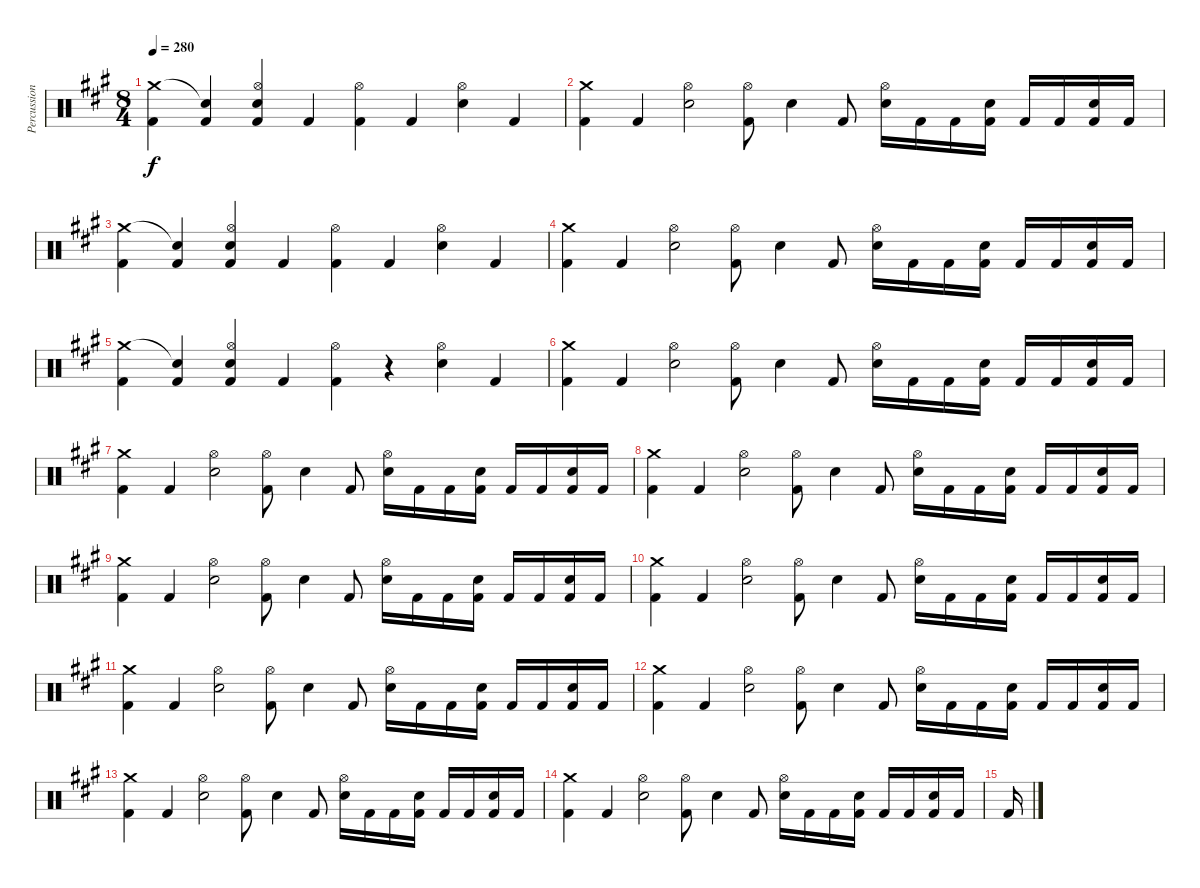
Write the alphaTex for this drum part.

\track ("Percussion" "Percussion") {instrument percussion}
\staff {score}
\articulation defaults
\ts (8 4)
\tempo 280
\clef neutral
\ks a
("Crash medium (hit)" "Kick (hit) 2").4{dy f} ("Snare (hit)"{t} "Kick (hit) 2").4 ("Hi-Hat (open)" "Electric Snare (hit)" "Kick (hit) 2").4 "Kick (hit) 2".4 ("Hi-Hat (open)" "Kick (hit) 2").4 "Kick (hit) 2".4 ("Hi-Hat (open)" "Electric Snare (hit)").4 "Kick (hit) 2".4 |
("Crash medium (hit)" "Kick (hit) 2").4 "Kick (hit) 2".4 ("Hi-Hat (open)" "Electric Snare (hit)").2 ("Hi-Hat (open)" "Kick (hit) 2").8 "Electric Snare (hit)".4 "Kick (hit) 2".8 ("Hi-Hat (open)" "Electric Snare (hit)").16 "Kick (hit) 2".16 "Kick (hit) 2".16 ("Electric Snare (hit)" "Kick (hit) 2").16 "Kick (hit) 2".16 "Kick (hit) 2".16 ("Electric Snare (hit)" "Kick (hit) 2").16 "Kick (hit) 2".16 |
("Crash medium (hit)" "Kick (hit) 2").4 ("Snare (hit)"{t} "Kick (hit) 2").4 ("Hi-Hat (open)" "Electric Snare (hit)" "Kick (hit) 2").4 "Kick (hit) 2".4 ("Hi-Hat (open)" "Kick (hit) 2").4 "Kick (hit) 2".4 ("Hi-Hat (open)" "Electric Snare (hit)").4 "Kick (hit) 2".4 |
("Crash medium (hit)" "Kick (hit) 2").4 "Kick (hit) 2".4 ("Hi-Hat (open)" "Electric Snare (hit)").2 ("Hi-Hat (open)" "Kick (hit) 2").8 "Electric Snare (hit)".4 "Kick (hit) 2".8 ("Hi-Hat (open)" "Electric Snare (hit)").16 "Kick (hit) 2".16 "Kick (hit) 2".16 ("Electric Snare (hit)" "Kick (hit) 2").16 "Kick (hit) 2".16 "Kick (hit) 2".16 ("Electric Snare (hit)" "Kick (hit) 2").16 "Kick (hit) 2".16 |
("Crash medium (hit)" "Kick (hit) 2").4 ("Snare (hit)"{t} "Kick (hit) 2").4 ("Hi-Hat (open)" "Electric Snare (hit)" "Kick (hit) 2").4 "Kick (hit) 2".4 ("Hi-Hat (open)" "Kick (hit) 2").4 r.4 ("Hi-Hat (open)" "Electric Snare (hit)").4 "Kick (hit) 2".4 |
("Crash medium (hit)" "Kick (hit) 2").4 "Kick (hit) 2".4 ("Hi-Hat (open)" "Electric Snare (hit)").2 ("Hi-Hat (open)" "Kick (hit) 2").8 "Electric Snare (hit)".4 "Kick (hit) 2".8 ("Hi-Hat (open)" "Electric Snare (hit)").16 "Kick (hit) 2".16 "Kick (hit) 2".16 ("Electric Snare (hit)" "Kick (hit) 2").16 "Kick (hit) 2".16 "Kick (hit) 2".16 ("Electric Snare (hit)" "Kick (hit) 2").16 "Kick (hit) 2".16 |
("Crash medium (hit)" "Kick (hit) 2").4 "Kick (hit) 2".4 ("Hi-Hat (open)" "Electric Snare (hit)").2 ("Hi-Hat (open)" "Kick (hit) 2").8 "Electric Snare (hit)".4 "Kick (hit) 2".8 ("Hi-Hat (open)" "Electric Snare (hit)").16 "Kick (hit) 2".16 "Kick (hit) 2".16 ("Electric Snare (hit)" "Kick (hit) 2").16 "Kick (hit) 2".16 "Kick (hit) 2".16 ("Electric Snare (hit)" "Kick (hit) 2").16 "Kick (hit) 2".16 |
("Crash medium (hit)" "Kick (hit) 2").4 "Kick (hit) 2".4 ("Hi-Hat (open)" "Electric Snare (hit)").2 ("Hi-Hat (open)" "Kick (hit) 2").8 "Electric Snare (hit)".4 "Kick (hit) 2".8 ("Hi-Hat (open)" "Electric Snare (hit)").16 "Kick (hit) 2".16 "Kick (hit) 2".16 ("Electric Snare (hit)" "Kick (hit) 2").16 "Kick (hit) 2".16 "Kick (hit) 2".16 ("Electric Snare (hit)" "Kick (hit) 2").16 "Kick (hit) 2".16 |
("Crash medium (hit)" "Kick (hit) 2").4 "Kick (hit) 2".4 ("Hi-Hat (open)" "Electric Snare (hit)").2 ("Hi-Hat (open)" "Kick (hit) 2").8 "Electric Snare (hit)".4 "Kick (hit) 2".8 ("Hi-Hat (open)" "Electric Snare (hit)").16 "Kick (hit) 2".16 "Kick (hit) 2".16 ("Electric Snare (hit)" "Kick (hit) 2").16 "Kick (hit) 2".16 "Kick (hit) 2".16 ("Electric Snare (hit)" "Kick (hit) 2").16 "Kick (hit) 2".16 |
("Crash medium (hit)" "Kick (hit) 2").4 "Kick (hit) 2".4 ("Hi-Hat (open)" "Electric Snare (hit)").2 ("Hi-Hat (open)" "Kick (hit) 2").8 "Electric Snare (hit)".4 "Kick (hit) 2".8 ("Hi-Hat (open)" "Electric Snare (hit)").16 "Kick (hit) 2".16 "Kick (hit) 2".16 ("Electric Snare (hit)" "Kick (hit) 2").16 "Kick (hit) 2".16 "Kick (hit) 2".16 ("Electric Snare (hit)" "Kick (hit) 2").16 "Kick (hit) 2".16 |
("Crash medium (hit)" "Kick (hit) 2").4 "Kick (hit) 2".4 ("Hi-Hat (open)" "Electric Snare (hit)").2 ("Hi-Hat (open)" "Kick (hit) 2").8 "Electric Snare (hit)".4 "Kick (hit) 2".8 ("Hi-Hat (open)" "Electric Snare (hit)").16 "Kick (hit) 2".16 "Kick (hit) 2".16 ("Electric Snare (hit)" "Kick (hit) 2").16 "Kick (hit) 2".16 "Kick (hit) 2".16 ("Electric Snare (hit)" "Kick (hit) 2").16 "Kick (hit) 2".16 |
("Crash medium (hit)" "Kick (hit) 2").4 "Kick (hit) 2".4 ("Hi-Hat (open)" "Electric Snare (hit)").2 ("Hi-Hat (open)" "Kick (hit) 2").8 "Electric Snare (hit)".4 "Kick (hit) 2".8 ("Hi-Hat (open)" "Electric Snare (hit)").16 "Kick (hit) 2".16 "Kick (hit) 2".16 ("Electric Snare (hit)" "Kick (hit) 2").16 "Kick (hit) 2".16 "Kick (hit) 2".16 ("Electric Snare (hit)" "Kick (hit) 2").16 "Kick (hit) 2".16 |
("Crash medium (hit)" "Kick (hit) 2").4 "Kick (hit) 2".4 ("Hi-Hat (open)" "Electric Snare (hit)").2 ("Hi-Hat (open)" "Kick (hit) 2").8 "Electric Snare (hit)".4 "Kick (hit) 2".8 ("Hi-Hat (open)" "Electric Snare (hit)").16 "Kick (hit) 2".16 "Kick (hit) 2".16 ("Electric Snare (hit)" "Kick (hit) 2").16 "Kick (hit) 2".16 "Kick (hit) 2".16 ("Electric Snare (hit)" "Kick (hit) 2").16 "Kick (hit) 2".16 |
("Crash medium (hit)" "Kick (hit) 2").4 "Kick (hit) 2".4 ("Hi-Hat (open)" "Electric Snare (hit)").2 ("Hi-Hat (open)" "Kick (hit) 2").8 "Electric Snare (hit)".4 "Kick (hit) 2".8 ("Hi-Hat (open)" "Electric Snare (hit)").16 "Kick (hit) 2".16 "Kick (hit) 2".16 ("Electric Snare (hit)" "Kick (hit) 2").16 "Kick (hit) 2".16 "Kick (hit) 2".16 ("Electric Snare (hit)" "Kick (hit) 2").16 "Kick (hit) 2".16 |
"Kick (hit) 2".16
